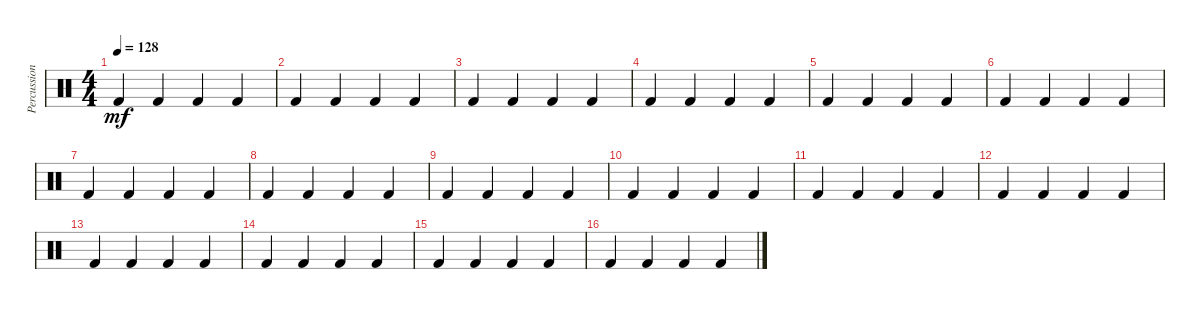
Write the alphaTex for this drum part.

\track ("Percussions" "Percussion") {instrument percussion}
\staff {score}
\articulation defaults
\ts (4 4)
\tempo 128
\clef neutral
\ks c "Kick (hit) 2".4{dy mf} "Kick (hit) 2".4 "Kick (hit) 2".4 "Kick (hit) 2".4
|
"Kick (hit) 2".4 "Kick (hit) 2".4 "Kick (hit) 2".4 "Kick (hit) 2".4 |
"Kick (hit) 2".4 "Kick (hit) 2".4 "Kick (hit) 2".4 "Kick (hit) 2".4 |
"Kick (hit) 2".4 "Kick (hit) 2".4 "Kick (hit) 2".4 "Kick (hit) 2".4 |
"Kick (hit) 2".4 "Kick (hit) 2".4 "Kick (hit) 2".4 "Kick (hit) 2".4 |
"Kick (hit) 2".4 "Kick (hit) 2".4 "Kick (hit) 2".4 "Kick (hit) 2".4 |
"Kick (hit) 2".4 "Kick (hit) 2".4 "Kick (hit) 2".4 "Kick (hit) 2".4 |
"Kick (hit) 2".4 "Kick (hit) 2".4 "Kick (hit) 2".4 "Kick (hit) 2".4 |
"Kick (hit) 2".4 "Kick (hit) 2".4 "Kick (hit) 2".4 "Kick (hit) 2".4 |
"Kick (hit) 2".4 "Kick (hit) 2".4 "Kick (hit) 2".4 "Kick (hit) 2".4 |
"Kick (hit) 2".4 "Kick (hit) 2".4 "Kick (hit) 2".4 "Kick (hit) 2".4 |
"Kick (hit) 2".4 "Kick (hit) 2".4 "Kick (hit) 2".4 "Kick (hit) 2".4 |
"Kick (hit) 2".4 "Kick (hit) 2".4 "Kick (hit) 2".4 "Kick (hit) 2".4 |
"Kick (hit) 2".4 "Kick (hit) 2".4 "Kick (hit) 2".4 "Kick (hit) 2".4 |
"Kick (hit) 2".4 "Kick (hit) 2".4 "Kick (hit) 2".4 "Kick (hit) 2".4 |
"Kick (hit) 2".4 "Kick (hit) 2".4 "Kick (hit) 2".4 "Kick (hit) 2".4
